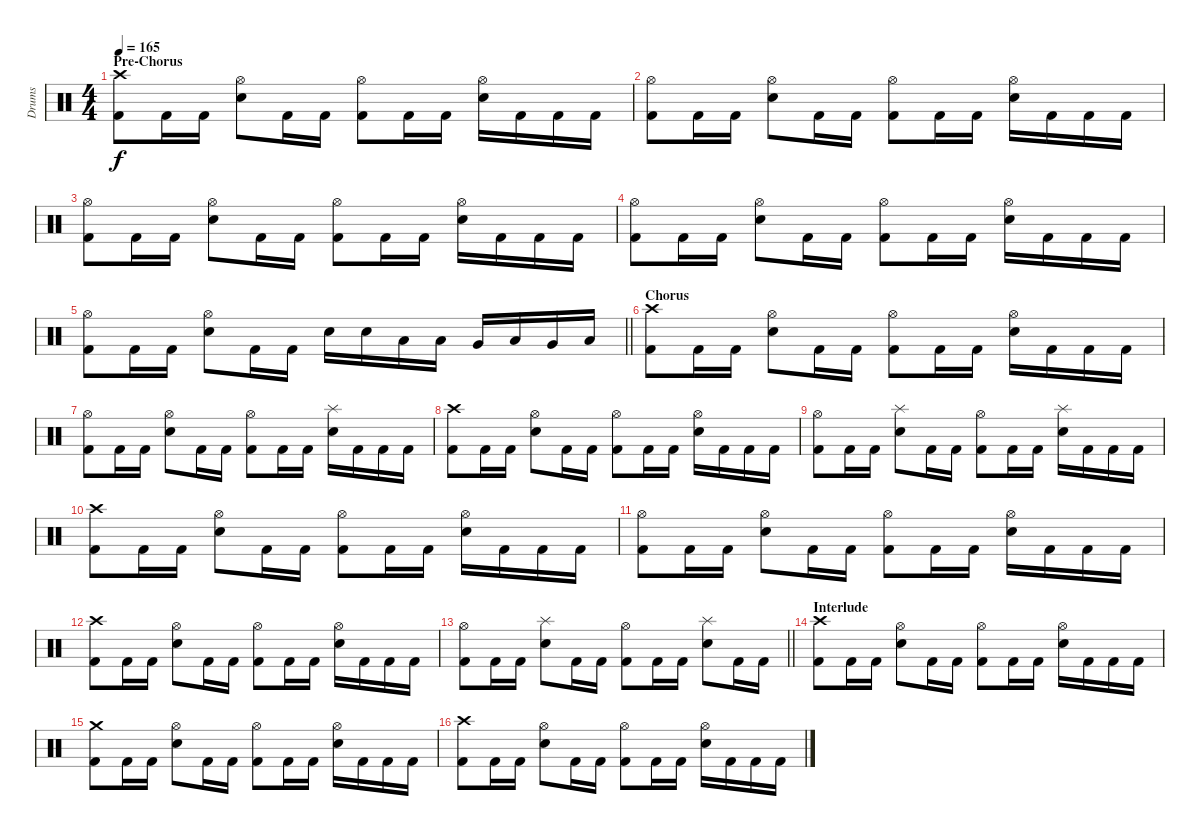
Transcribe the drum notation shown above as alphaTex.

\track ("Drums" "Drums") {instrument percussion}
\staff {score}
\articulation defaults
\ts (4 4)
\section ("" "Pre-Chorus")
\tempo 165
\clef neutral
\ks c
("Crash high (hit)" "Kick (hit) 2").8{dy f} "Kick (hit) 2".16 "Kick (hit) 2".16 ("Hi-Hat (open)" "Snare (hit) 2").8 "Kick (hit) 2".16 "Kick (hit) 2".16 ("Hi-Hat (open)" "Kick (hit) 2").8 "Kick (hit) 2".16 "Kick (hit) 2".16 ("Hi-Hat (open)" "Snare (hit) 2").16 "Kick (hit) 2".16 "Kick (hit) 2".16 "Kick (hit) 2".16 |
("Hi-Hat (open)" "Kick (hit) 2").8 "Kick (hit) 2".16 "Kick (hit) 2".16 ("Hi-Hat (open)" "Snare (hit) 2").8 "Kick (hit) 2".16 "Kick (hit) 2".16 ("Hi-Hat (open)" "Kick (hit) 2").8 "Kick (hit) 2".16 "Kick (hit) 2".16 ("Hi-Hat (open)" "Snare (hit) 2").16 "Kick (hit) 2".16 "Kick (hit) 2".16 "Kick (hit) 2".16 |
("Hi-Hat (open)" "Kick (hit) 2").8 "Kick (hit) 2".16 "Kick (hit) 2".16 ("Hi-Hat (open)" "Snare (hit) 2").8 "Kick (hit) 2".16 "Kick (hit) 2".16 ("Hi-Hat (open)" "Kick (hit) 2").8 "Kick (hit) 2".16 "Kick (hit) 2".16 ("Hi-Hat (open)" "Snare (hit) 2").16 "Kick (hit) 2".16 "Kick (hit) 2".16 "Kick (hit) 2".16 |
("Hi-Hat (open)" "Kick (hit) 2").8 "Kick (hit) 2".16 "Kick (hit) 2".16 ("Hi-Hat (open)" "Snare (hit) 2").8 "Kick (hit) 2".16 "Kick (hit) 2".16 ("Hi-Hat (open)" "Kick (hit) 2").8 "Kick (hit) 2".16 "Kick (hit) 2".16 ("Hi-Hat (open)" "Snare (hit) 2").16 "Kick (hit) 2".16 "Kick (hit) 2".16 "Kick (hit) 2".16 |
\barLineRight lightlight
("Hi-Hat (open)" "Kick (hit) 2").8 "Kick (hit) 2".16 "Kick (hit) 2".16 ("Hi-Hat (open)" "Snare (hit) 2").8 "Kick (hit) 2".16 "Kick (hit) 2".16 "Snare (hit) 2".16 "Snare (hit) 2".16 "Low Tom (hit)".16 "Low Tom (hit)".16 "Very Low Tom (hit)".16 "Low Floor Tom (hit)".16 "Very Low Tom (hit)".16 "Low Floor Tom (hit)".16 |
\section ("" "Chorus")
("Crash high (hit)" "Kick (hit) 2").8 "Kick (hit) 2".16 "Kick (hit) 2".16 ("Hi-Hat (open)" "Snare (hit) 2").8 "Kick (hit) 2".16 "Kick (hit) 2".16 ("Hi-Hat (open)" "Kick (hit) 2").8 "Kick (hit) 2".16 "Kick (hit) 2".16 ("Hi-Hat (open)" "Snare (hit) 2").16 "Kick (hit) 2".16 "Kick (hit) 2".16 "Kick (hit) 2".16 |
("Hi-Hat (open)" "Kick (hit) 2").8 "Kick (hit) 2".16 "Kick (hit) 2".16 ("Hi-Hat (open)" "Snare (hit) 2").8 "Kick (hit) 2".16 "Kick (hit) 2".16 ("Hi-Hat (open)" "Kick (hit) 2").8 "Kick (hit) 2".16 "Kick (hit) 2".16 ("Splash (hit)" "Snare (hit) 2").16 "Kick (hit) 2".16 "Kick (hit) 2".16 "Kick (hit) 2".16 |
("Crash high (hit)" "Kick (hit) 2").8 "Kick (hit) 2".16 "Kick (hit) 2".16 ("Hi-Hat (open)" "Snare (hit) 2").8 "Kick (hit) 2".16 "Kick (hit) 2".16 ("Hi-Hat (open)" "Kick (hit) 2").8 "Kick (hit) 2".16 "Kick (hit) 2".16 ("Hi-Hat (open)" "Snare (hit) 2").16 "Kick (hit) 2".16 "Kick (hit) 2".16 "Kick (hit) 2".16 |
("Hi-Hat (open)" "Kick (hit) 2").8 "Kick (hit) 2".16 "Kick (hit) 2".16 ("Splash (hit)" "Snare (hit) 2").8 "Kick (hit) 2".16 "Kick (hit) 2".16 ("Hi-Hat (open)" "Kick (hit) 2").8 "Kick (hit) 2".16 "Kick (hit) 2".16 ("Splash (hit)" "Snare (hit) 2").16 "Kick (hit) 2".16 "Kick (hit) 2".16 "Kick (hit) 2".16 |
("Crash high (hit)" "Kick (hit) 2").8 "Kick (hit) 2".16 "Kick (hit) 2".16 ("Hi-Hat (open)" "Snare (hit) 2").8 "Kick (hit) 2".16 "Kick (hit) 2".16 ("Hi-Hat (open)" "Kick (hit) 2").8 "Kick (hit) 2".16 "Kick (hit) 2".16 ("Hi-Hat (open)" "Snare (hit) 2").16 "Kick (hit) 2".16 "Kick (hit) 2".16 "Kick (hit) 2".16 |
("Hi-Hat (open)" "Kick (hit) 2").8 "Kick (hit) 2".16 "Kick (hit) 2".16 ("Hi-Hat (open)" "Snare (hit) 2").8 "Kick (hit) 2".16 "Kick (hit) 2".16 ("Hi-Hat (open)" "Kick (hit) 2").8 "Kick (hit) 2".16 "Kick (hit) 2".16 ("Hi-Hat (open)" "Snare (hit) 2").16 "Kick (hit) 2".16 "Kick (hit) 2".16 "Kick (hit) 2".16 |
("Crash high (hit)" "Kick (hit) 2").8 "Kick (hit) 2".16 "Kick (hit) 2".16 ("Hi-Hat (open)" "Snare (hit) 2").8 "Kick (hit) 2".16 "Kick (hit) 2".16 ("Hi-Hat (open)" "Kick (hit) 2").8 "Kick (hit) 2".16 "Kick (hit) 2".16 ("Hi-Hat (open)" "Snare (hit) 2").16 "Kick (hit) 2".16 "Kick (hit) 2".16 "Kick (hit) 2".16 |
\barLineRight lightlight
("Hi-Hat (open)" "Kick (hit) 2").8 "Kick (hit) 2".16 "Kick (hit) 2".16 ("Splash (hit)" "Snare (hit) 2").8 "Kick (hit) 2".16 "Kick (hit) 2".16 ("Hi-Hat (open)" "Kick (hit) 2").8 "Kick (hit) 2".16 "Kick (hit) 2".16 ("Splash (hit)" "Snare (hit) 2").8 "Kick (hit) 2".16 "Kick (hit) 2".16 |
\section ("" "Interlude")
("Crash high (hit)" "Kick (hit) 2").8 "Kick (hit) 2".16 "Kick (hit) 2".16 ("Hi-Hat (open)" "Snare (hit) 2").8 "Kick (hit) 2".16 "Kick (hit) 2".16 ("Hi-Hat (open)" "Kick (hit) 2").8 "Kick (hit) 2".16 "Kick (hit) 2".16 ("Hi-Hat (open)" "Snare (hit) 2").16 "Kick (hit) 2".16 "Kick (hit) 2".16 "Kick (hit) 2".16 |
("Crash medium (hit)" "Kick (hit) 2").8 "Kick (hit) 2".16 "Kick (hit) 2".16 ("Hi-Hat (open)" "Snare (hit) 2").8 "Kick (hit) 2".16 "Kick (hit) 2".16 ("Hi-Hat (open)" "Kick (hit) 2").8 "Kick (hit) 2".16 "Kick (hit) 2".16 ("Hi-Hat (open)" "Snare (hit) 2").16 "Kick (hit) 2".16 "Kick (hit) 2".16 "Kick (hit) 2".16 |
("Crash high (hit)" "Kick (hit) 2").8 "Kick (hit) 2".16 "Kick (hit) 2".16 ("Hi-Hat (open)" "Snare (hit) 2").8 "Kick (hit) 2".16 "Kick (hit) 2".16 ("Hi-Hat (open)" "Kick (hit) 2").8 "Kick (hit) 2".16 "Kick (hit) 2".16 ("Hi-Hat (open)" "Snare (hit) 2").16 "Kick (hit) 2".16 "Kick (hit) 2".16 "Kick (hit) 2".16
